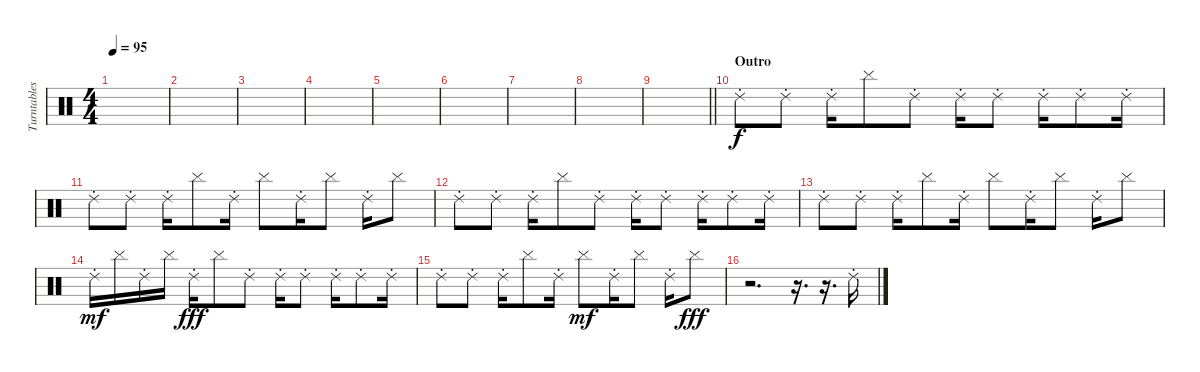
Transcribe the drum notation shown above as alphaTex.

\track ("Turntables - Joe Hahn" "Turntables") {instrument percussion}
\staff {score}
\articulation defaults
\ts (4 4)
\tempo 95
\clef neutral
\ks c
|
|
|
|
|
|
|
|
\barLineRight lightlight
|
\section ("" "Outro")
"Ride (choke) 2".8 "Ride (choke) 2".8 "Ride (choke) 2".16 "Cymbal (hit)".8 "Ride (choke) 2".8 "Ride (choke) 2".16 "Ride (choke) 2".8 "Ride (choke) 2".16 "Ride (choke) 2".8 "Ride (choke) 2".16 |
"Ride (choke) 2".8 "Ride (choke) 2".8 "Ride (choke) 2".16 "Cymbal (hit)".8 "Ride (choke) 2".16 "Cymbal (hit)".8 "Ride (choke) 2".16 "Cymbal (hit)".8 "Ride (choke) 2".16 "Cymbal (hit)".8 |
"Ride (choke) 2".8 "Ride (choke) 2".8 "Ride (choke) 2".16 "Cymbal (hit)".8 "Ride (choke) 2".8 "Ride (choke) 2".16 "Ride (choke) 2".8 "Ride (choke) 2".16 "Ride (choke) 2".8 "Ride (choke) 2".16 |
"Ride (choke) 2".8 "Ride (choke) 2".8 "Ride (choke) 2".16 "Cymbal (hit)".8 "Ride (choke) 2".16 "Cymbal (hit)".8 "Ride (choke) 2".16 "Cymbal (hit)".8 "Ride (choke) 2".16 "Cymbal (hit)".8 |
"Ride (choke) 2".16{dy mf} "Cymbal (hit)".16 "Ride (choke) 2".16 "Cymbal (hit)".16 "Ride (choke) 2".16{dy fff} "Cymbal (hit)".8 "Ride (choke) 2".8 "Ride (choke) 2".16 "Ride (choke) 2".8 "Ride (choke) 2".16 "Ride (choke) 2".8 "Ride (choke) 2".16 |
"Ride (choke) 2".8 "Ride (choke) 2".8 "Ride (choke) 2".16 "Cymbal (hit)".8 "Ride (choke) 2".16 "Cymbal (hit)".8{dy mf} "Ride (choke) 2".16 "Cymbal (hit)".8 "Ride (choke) 2".16 "Cymbal (hit)".8{dy fff} |
r.2{d} r.16{d} r.16{d} "Ride (choke) 2".16
